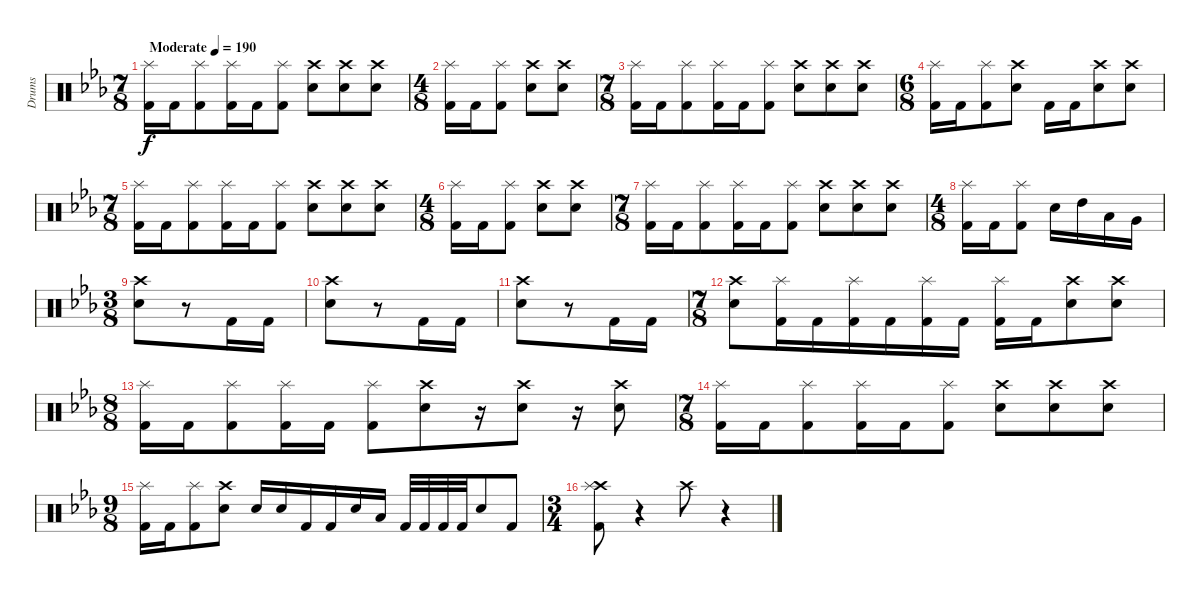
\track ("Drums" "Drums") {instrument percussion}
\staff {score}
\articulation defaults
\ts (7 8)
\tempo (190 "Moderate")
\clef neutral
\ks eb
("Splash (hit)" "Kick (hit) 2").16{dy f} "Kick (hit) 2".16 ("Splash (hit)" "Kick (hit) 2").8 ("Splash (hit)" "Kick (hit) 2").16 "Kick (hit) 2".16 ("Splash (hit)" "Kick (hit) 2").8 ("Crash high (hit)" "Electric Snare (hit)").8 ("Crash high (hit)" "Electric Snare (hit)").8 ("Crash high (hit)" "Electric Snare (hit)").8 |
\ts (4 8)
("Splash (hit)" "Kick (hit) 2").16 "Kick (hit) 2".16 ("Splash (hit)" "Kick (hit) 2").8 ("Crash high (hit)" "Electric Snare (hit)").8 ("Crash high (hit)" "Electric Snare (hit)").8 |
\ts (7 8)
("Kick (hit) 2" "Splash (hit)").16 "Kick (hit) 2".16 ("Kick (hit) 2" "Splash (hit)").8 ("Kick (hit) 2" "Splash (hit)").16 "Kick (hit) 2".16 ("Kick (hit) 2" "Splash (hit)").8 ("Crash high (hit)" "Electric Snare (hit)").8 ("Crash high (hit)" "Electric Snare (hit)").8 ("Crash high (hit)" "Electric Snare (hit)").8 |
\ts (6 8)
("Kick (hit) 2" "Splash (hit)").16 "Kick (hit) 2".16 ("Kick (hit) 2" "Splash (hit)").8 ("Crash high (hit)" "Electric Snare (hit)").8 "Kick (hit) 2".16 "Kick (hit) 2".16 ("Crash high (hit)" "Electric Snare (hit)").8 ("Crash high (hit)" "Electric Snare (hit)").8 |
\ts (7 8)
("Kick (hit) 2" "Splash (hit)").16 "Kick (hit) 2".16 ("Kick (hit) 2" "Splash (hit)").8 ("Kick (hit) 2" "Splash (hit)").16 "Kick (hit) 2".16 ("Kick (hit) 2" "Splash (hit)").8 ("Crash high (hit)" "Electric Snare (hit)").8 ("Crash high (hit)" "Electric Snare (hit)").8 ("Crash high (hit)" "Electric Snare (hit)").8 |
\ts (4 8)
("Kick (hit) 2" "Splash (hit)").16 "Kick (hit) 2".16 ("Kick (hit) 2" "Splash (hit)").8 ("Crash high (hit)" "Electric Snare (hit)").8 ("Crash high (hit)" "Electric Snare (hit)").8 |
\ts (7 8)
("Kick (hit) 2" "Splash (hit)").16 "Kick (hit) 2".16 ("Kick (hit) 2" "Splash (hit)").8 ("Kick (hit) 2" "Splash (hit)").16 "Kick (hit) 2".16 ("Kick (hit) 2" "Splash (hit)").8 ("Crash high (hit)" "Electric Snare (hit)").8 ("Crash high (hit)" "Electric Snare (hit)").8 ("Crash high (hit)" "Electric Snare (hit)").8 |
\ts (4 8)
("Kick (hit) 2" "Splash (hit)").16 "Kick (hit) 2".16 ("Kick (hit) 2" "Splash (hit)").8 "Electric Snare (hit)".16 "High Tom (hit)".16 "Low Tom (hit)".16 "Very Low Tom (hit)".16 |
\ts (3 8)
("Crash high (hit)" "Electric Snare (hit)").8 r.8 "Kick (hit) 2".16 "Kick (hit) 2".16 |
("Crash high (hit)" "Electric Snare (hit)").8 r.8 "Kick (hit) 2".16 "Kick (hit) 2".16 |
("Crash high (hit)" "Electric Snare (hit)").8 r.8 "Kick (hit) 2".16 "Kick (hit) 2".16 |
\ts (7 8)
("Crash high (hit)" "Electric Snare (hit)").8 ("Kick (hit) 2" "Splash (hit)").16 "Kick (hit) 2".16 ("Kick (hit) 2" "Splash (hit)").16 "Kick (hit) 2".16 ("Kick (hit) 2" "Splash (hit)").16 "Kick (hit) 2".16 ("Kick (hit) 2" "Splash (hit)").16 "Kick (hit) 2".16 ("Crash high (hit)" "Electric Snare (hit)").8 ("Crash high (hit)" "Electric Snare (hit)").8 |
\ts (8 8)
("Kick (hit) 2" "Splash (hit)").16 "Kick (hit) 2".16 ("Kick (hit) 2" "Splash (hit)").8 ("Kick (hit) 2" "Splash (hit)").16 "Kick (hit) 2".16 ("Kick (hit) 2" "Splash (hit)").8 ("Crash high (hit)" "Electric Snare (hit)").8 r.16 ("Crash high (hit)" "Electric Snare (hit)").8 r.16 ("Crash high (hit)" "Electric Snare (hit)").8 |
\ts (7 8)
("Kick (hit) 2" "Splash (hit)").16 "Kick (hit) 2".16 ("Kick (hit) 2" "Splash (hit)").8 ("Kick (hit) 2" "Splash (hit)").16 "Kick (hit) 2".16 ("Kick (hit) 2" "Splash (hit)").8 ("Crash high (hit)" "Electric Snare (hit)").8 ("Crash high (hit)" "Electric Snare (hit)").8 ("Crash high (hit)" "Electric Snare (hit)").8 |
\ts (9 8)
("Kick (hit) 2" "Splash (hit)").16 "Kick (hit) 2".16 ("Kick (hit) 2" "Splash (hit)").8 ("Crash high (hit)" "Electric Snare (hit)").8 "Electric Snare (hit)".16 "Electric Snare (hit)".16 "Kick (hit) 2".16 "Kick (hit) 2".16 "Electric Snare (hit)".16 "Low Tom (hit)".16 "Kick (hit) 2".32 "Kick (hit) 2".32 "Kick (hit) 2".32 "Kick (hit) 2".32 "Electric Snare (hit)".8 "Kick (hit) 2".8 |
\ts (3 4)
("Kick (hit) 2" "Crash high (hit)" "Splash (hit)").8 r.4 "Crash high (hit)".8 r.4
